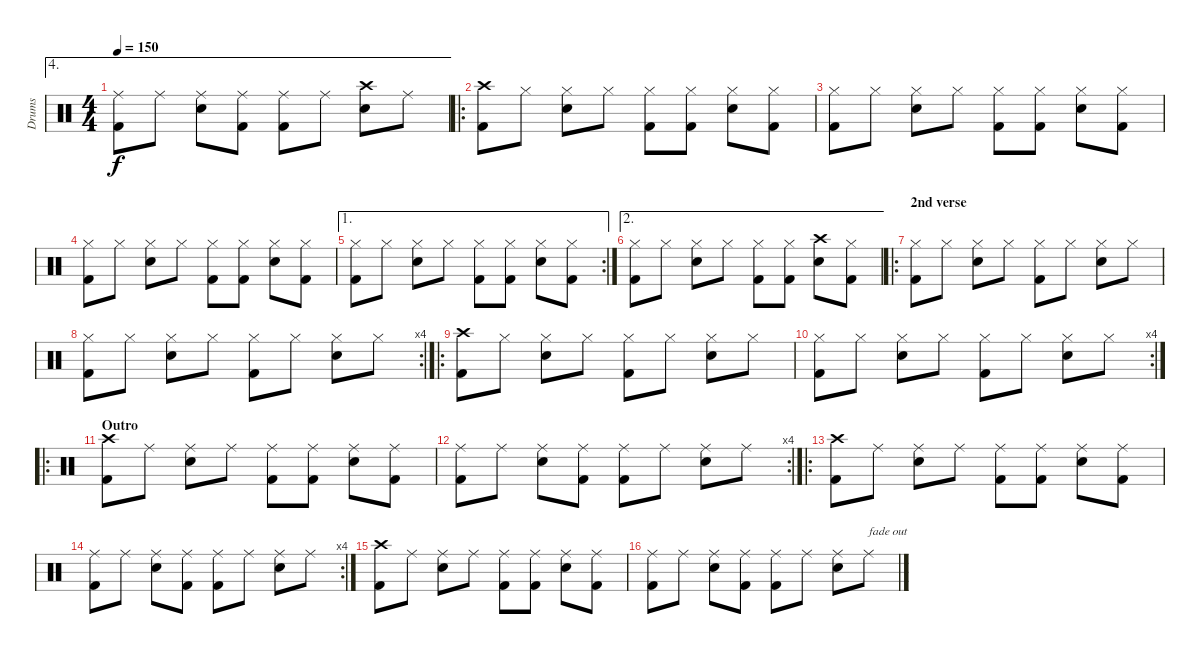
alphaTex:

\track ("Drums" "Drums") {instrument percussion}
\staff {score}
\articulation defaults
\ae 4
\ts (4 4)
\tempo 150
\clef neutral
\ks c
("Ride (middle)" "Kick (hit) 2").8{dy f} "Ride (middle)".8 ("Ride (middle)" "Electric Snare (hit)").8 ("Ride (middle)" "Kick (hit) 2").8 ("Ride (middle)" "Kick (hit) 2").8 "Ride (middle)".8 ("Crash high (hit)" "Electric Snare (hit)").8 "Ride (middle)".8 |
\ro
("Crash high (hit)" "Kick (hit) 2").8 "Hi-Hat (closed)".8 ("Hi-Hat (closed)" "Electric Snare (hit)").8 "Hi-Hat (closed)".8 ("Hi-Hat (closed)" "Kick (hit) 2").8 ("Hi-Hat (closed)" "Kick (hit) 2").8 ("Hi-Hat (closed)" "Electric Snare (hit)").8 ("Hi-Hat (closed)" "Kick (hit) 2").8 |
("Hi-Hat (closed)" "Kick (hit) 2").8 "Hi-Hat (closed)".8 ("Hi-Hat (closed)" "Electric Snare (hit)").8 "Hi-Hat (closed)".8 ("Hi-Hat (closed)" "Kick (hit) 2").8 ("Hi-Hat (closed)" "Kick (hit) 2").8 ("Hi-Hat (closed)" "Electric Snare (hit)").8 ("Hi-Hat (closed)" "Kick (hit) 2").8 |
("Hi-Hat (closed)" "Kick (hit) 2").8 "Hi-Hat (closed)".8 ("Hi-Hat (closed)" "Electric Snare (hit)").8 "Hi-Hat (closed)".8 ("Hi-Hat (closed)" "Kick (hit) 2").8 ("Hi-Hat (closed)" "Kick (hit) 2").8 ("Hi-Hat (closed)" "Electric Snare (hit)").8 ("Hi-Hat (closed)" "Kick (hit) 2").8 |
\ae 1
\rc 2
("Hi-Hat (closed)" "Kick (hit) 2").8 "Hi-Hat (closed)".8 ("Hi-Hat (closed)" "Electric Snare (hit)").8 "Hi-Hat (closed)".8 ("Hi-Hat (closed)" "Kick (hit) 2").8 ("Hi-Hat (closed)" "Kick (hit) 2").8 ("Hi-Hat (closed)" "Electric Snare (hit)").8 ("Hi-Hat (closed)" "Kick (hit) 2").8 |
\ae 2
("Hi-Hat (closed)" "Kick (hit) 2").8 "Hi-Hat (closed)".8 ("Hi-Hat (closed)" "Electric Snare (hit)").8 "Hi-Hat (closed)".8 ("Hi-Hat (closed)" "Kick (hit) 2").8 ("Hi-Hat (closed)" "Kick (hit) 2").8 ("Crash high (hit)" "Electric Snare (hit)").8 ("Hi-Hat (closed)" "Kick (hit) 2").8 |
\ro
\section ("" "2nd verse")
("Hi-Hat (closed)" "Kick (hit) 2").8 "Hi-Hat (closed)".8 ("Hi-Hat (closed)" "Electric Snare (hit)").8 "Hi-Hat (closed)".8 ("Hi-Hat (closed)" "Kick (hit) 2").8 "Hi-Hat (closed)".8 ("Hi-Hat (closed)" "Electric Snare (hit)").8 "Hi-Hat (closed)".8 |
\rc 4
("Hi-Hat (closed)" "Kick (hit) 2").8 "Hi-Hat (closed)".8 ("Hi-Hat (closed)" "Electric Snare (hit)").8 "Hi-Hat (closed)".8 ("Hi-Hat (closed)" "Kick (hit) 2").8 "Hi-Hat (closed)".8 ("Hi-Hat (closed)" "Electric Snare (hit)").8 "Hi-Hat (closed)".8 |
\ro
("Crash high (hit)" "Kick (hit) 2").8 "Hi-Hat (closed)".8 ("Hi-Hat (closed)" "Electric Snare (hit)").8 "Hi-Hat (closed)".8 ("Hi-Hat (closed)" "Kick (hit) 2").8 "Hi-Hat (closed)".8 ("Hi-Hat (closed)" "Electric Snare (hit)").8 "Hi-Hat (closed)".8 |
\rc 4
("Hi-Hat (closed)" "Kick (hit) 2").8 "Hi-Hat (closed)".8 ("Hi-Hat (closed)" "Electric Snare (hit)").8 "Hi-Hat (closed)".8 ("Hi-Hat (closed)" "Kick (hit) 2").8 "Hi-Hat (closed)".8 ("Hi-Hat (closed)" "Electric Snare (hit)").8 "Hi-Hat (closed)".8 |
\ro
\section ("" "Outro")
("Crash high (hit)" "Kick (hit) 2").8 "Ride (middle)".8 ("Ride (middle)" "Electric Snare (hit)").8 "Ride (middle)".8 ("Ride (middle)" "Kick (hit) 2").8 ("Ride (middle)" "Kick (hit) 2").8 ("Ride (middle)" "Electric Snare (hit)").8 ("Ride (middle)" "Kick (hit) 2").8 |
\rc 4
("Ride (middle)" "Kick (hit) 2").8 "Ride (middle)".8 ("Ride (middle)" "Electric Snare (hit)").8 ("Ride (middle)" "Kick (hit) 2").8 ("Ride (middle)" "Kick (hit) 2").8 "Ride (middle)".8 ("Ride (middle)" "Electric Snare (hit)").8 "Ride (middle)".8 |
\ro
("Crash high (hit)" "Kick (hit) 2").8 "Ride (middle)".8 ("Ride (middle)" "Electric Snare (hit)").8 "Ride (middle)".8 ("Ride (middle)" "Kick (hit) 2").8 ("Ride (middle)" "Kick (hit) 2").8 ("Ride (middle)" "Electric Snare (hit)").8 ("Ride (middle)" "Kick (hit) 2").8 |
\rc 4
("Ride (middle)" "Kick (hit) 2").8 "Ride (middle)".8 ("Ride (middle)" "Electric Snare (hit)").8 ("Ride (middle)" "Kick (hit) 2").8 ("Ride (middle)" "Kick (hit) 2").8 "Ride (middle)".8 ("Ride (middle)" "Electric Snare (hit)").8 "Ride (middle)".8 |
("Crash high (hit)" "Kick (hit) 2").8{volume 0} "Ride (middle)".8 ("Ride (middle)" "Electric Snare (hit)").8 "Ride (middle)".8 ("Ride (middle)" "Kick (hit) 2").8 ("Ride (middle)" "Kick (hit) 2").8 ("Ride (middle)" "Electric Snare (hit)").8 ("Ride (middle)" "Kick (hit) 2").8 |
("Ride (middle)" "Kick (hit) 2").8 "Ride (middle)".8 ("Ride (middle)" "Electric Snare (hit)").8 ("Ride (middle)" "Kick (hit) 2").8 ("Ride (middle)" "Kick (hit) 2").8 "Ride (middle)".8 ("Ride (middle)" "Electric Snare (hit)").8 "Ride (middle)".8{txt "fade out"}
